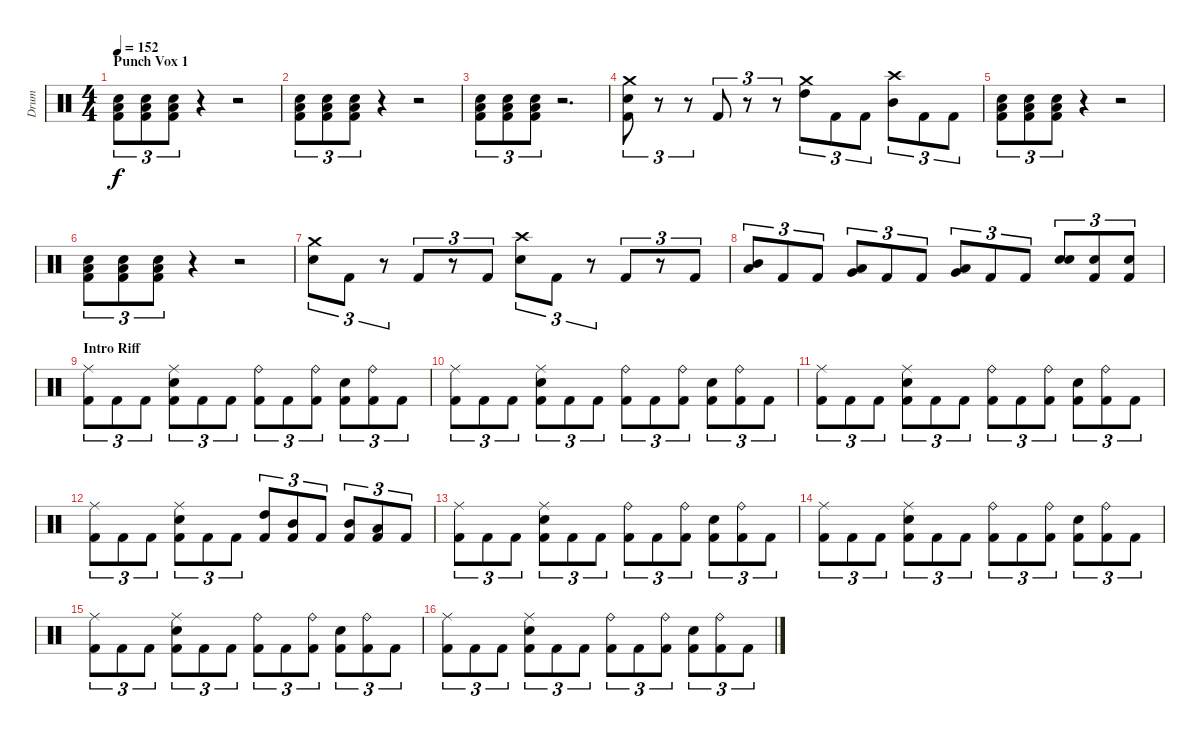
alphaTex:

\track ("Drum" "Drum") {instrument percussion}
\staff {score}
\articulation defaults
\ts (4 4)
\section ("" "Punch Vox 1")
\tempo 152
\clef neutral
\ks c
("Electric Snare (hit)" "Kick (hit) 2" "Low Floor Tom (hit)").8{tu (3 2) dy f} ("Electric Snare (hit)" "Low Floor Tom (hit)" "Kick (hit) 2").8{tu (3 2)} ("Kick (hit) 2" "Low Floor Tom (hit)" "Electric Snare (hit)").8{tu (3 2)} r.4 r.2 |
("Kick (hit) 2" "Low Floor Tom (hit)" "Electric Snare (hit)").8{tu (3 2)} ("Electric Snare (hit)" "Kick (hit) 2" "Low Floor Tom (hit)").8{tu (3 2)} ("Low Floor Tom (hit)" "Kick (hit) 2" "Electric Snare (hit)").8{tu (3 2)} r.4 r.2 |
("Electric Snare (hit)" "Low Floor Tom (hit)" "Kick (hit) 2").8{tu (3 2)} ("Electric Snare (hit)" "Low Floor Tom (hit)" "Kick (hit) 2").8{tu (3 2)} ("Kick (hit) 2" "Low Floor Tom (hit)" "Electric Snare (hit)").8{tu (3 2)} r.2{d} |
("Kick (hit) 2" "Electric Snare (hit)" "Crash medium (hit)").8{tu (3 2)} r.8{tu (3 2)} r.8{tu (3 2)} "Kick (hit) 2".8{tu (3 2)} r.8{tu (3 2)} r.8{tu (3 2)} ("Crash medium (hit)" "High Tom (hit)").8{tu (3 2)} "Kick (hit) 2".8{tu (3 2)} "Kick (hit) 2".8{tu (3 2)} ("Crash high (hit)" "Mid Tom (hit)").8{tu (3 2)} "Kick (hit) 2".8{tu (3 2)} "Kick (hit) 2".8{tu (3 2)} |
("Electric Snare (hit)" "Kick (hit) 2" "Low Floor Tom (hit)").8{tu (3 2)} ("Electric Snare (hit)" "Kick (hit) 2" "Low Floor Tom (hit)").8{tu (3 2)} ("Electric Snare (hit)" "Kick (hit) 2" "Low Floor Tom (hit)").8{tu (3 2)} r.4 r.2 |
("Electric Snare (hit)" "Kick (hit) 2" "Low Floor Tom (hit)").8{tu (3 2)} ("Electric Snare (hit)" "Kick (hit) 2" "Low Floor Tom (hit)").8{tu (3 2)} ("Electric Snare (hit)" "Kick (hit) 2" "Low Floor Tom (hit)").8{tu (3 2)} r.4 r.2 |
("Electric Snare (hit)" "Crash medium (hit)").8{tu (3 2)} "Kick (hit) 2".8{tu (3 2)} r.8{tu (3 2)} "Kick (hit) 2".8{tu (3 2)} r.8{tu (3 2)} "Kick (hit) 2".8{tu (3 2)} ("Electric Snare (hit)" "Crash high (hit)").8{tu (3 2)} "Kick (hit) 2".8{tu (3 2)} r.8{tu (3 2)} "Kick (hit) 2".8{tu (3 2)} r.8{tu (3 2)} "Kick (hit) 2".8{tu (3 2)} |
("Low Tom (hit)" "Mid Tom (hit)").8{tu (3 2)} "Kick (hit) 2".8{tu (3 2)} "Kick (hit) 2".8{tu (3 2)} ("Very Low Tom (hit)" "Low Tom (hit)").8{tu (3 2)} "Kick (hit) 2".8{tu (3 2)} "Kick (hit) 2".8{tu (3 2)} ("Low Floor Tom (hit)" "Very Low Tom (hit)").8{tu (3 2)} "Kick (hit) 2".8{tu (3 2)} "Kick (hit) 2".8{tu (3 2)} ("Electric Snare (hit)" "Electric Snare (hit)").8{tu (3 2)} ("Electric Snare (hit)" "Kick (hit) 2").8{tu (3 2)} ("Kick (hit) 2" "Electric Snare (hit)").8{tu (3 2)} |
\section ("" "Intro Riff")
("Kick (hit) 2" "Ride (middle)").8{tu (3 2)} "Kick (hit) 2".8{tu (3 2)} "Kick (hit) 2".8{tu (3 2)} ("Ride (middle)" "Kick (hit) 2" "Electric Snare (hit)").8{tu (3 2)} "Kick (hit) 2".8{tu (3 2)} "Kick (hit) 2".8{tu (3 2)} ("Ride (bell)" "Kick (hit) 2").8{tu (3 2)} "Kick (hit) 2".8{tu (3 2)} ("Ride (bell)" "Kick (hit) 2").8{tu (3 2)} ("Electric Snare (hit)" "Kick (hit) 2").8{tu (3 2)} ("Ride (bell)" "Kick (hit) 2").8{tu (3 2)} "Kick (hit) 2".8{tu (3 2)} |
("Kick (hit) 2" "Ride (middle)").8{tu (3 2)} "Kick (hit) 2".8{tu (3 2)} "Kick (hit) 2".8{tu (3 2)} ("Electric Snare (hit)" "Ride (middle)" "Kick (hit) 2").8{tu (3 2)} "Kick (hit) 2".8{tu (3 2)} "Kick (hit) 2".8{tu (3 2)} ("Kick (hit) 2" "Ride (bell)").8{tu (3 2)} "Kick (hit) 2".8{tu (3 2)} ("Kick (hit) 2" "Ride (bell)").8{tu (3 2)} ("Electric Snare (hit)" "Kick (hit) 2").8{tu (3 2)} ("Kick (hit) 2" "Ride (bell)").8{tu (3 2)} "Kick (hit) 2".8{tu (3 2)} |
("Ride (middle)" "Kick (hit) 2").8{tu (3 2)} "Kick (hit) 2".8{tu (3 2)} "Kick (hit) 2".8{tu (3 2)} ("Electric Snare (hit)" "Ride (middle)" "Kick (hit) 2").8{tu (3 2)} "Kick (hit) 2".8{tu (3 2)} "Kick (hit) 2".8{tu (3 2)} ("Ride (bell)" "Kick (hit) 2").8{tu (3 2)} "Kick (hit) 2".8{tu (3 2)} ("Ride (bell)" "Kick (hit) 2").8{tu (3 2)} ("Electric Snare (hit)" "Kick (hit) 2").8{tu (3 2)} ("Ride (bell)" "Kick (hit) 2").8{tu (3 2)} "Kick (hit) 2".8{tu (3 2)} |
("Ride (middle)" "Kick (hit) 2").8{tu (3 2)} "Kick (hit) 2".8{tu (3 2)} "Kick (hit) 2".8{tu (3 2)} ("Electric Snare (hit)" "Kick (hit) 2" "Ride (middle)").8{tu (3 2)} "Kick (hit) 2".8{tu (3 2)} "Kick (hit) 2".8{tu (3 2)} ("Kick (hit) 2" "High Tom (hit)").8{tu (3 2)} ("Kick (hit) 2" "Mid Tom (hit)").8{tu (3 2)} "Kick (hit) 2".8{tu (3 2)} ("Mid Tom (hit)" "Kick (hit) 2").8{tu (3 2)} ("Low Tom (hit)" "Kick (hit) 2").8{tu (3 2)} "Kick (hit) 2".8{tu (3 2)} |
("Ride (middle)" "Kick (hit) 2").8{tu (3 2)} "Kick (hit) 2".8{tu (3 2)} "Kick (hit) 2".8{tu (3 2)} ("Ride (middle)" "Electric Snare (hit)" "Kick (hit) 2").8{tu (3 2)} "Kick (hit) 2".8{tu (3 2)} "Kick (hit) 2".8{tu (3 2)} ("Ride (bell)" "Kick (hit) 2").8{tu (3 2)} "Kick (hit) 2".8{tu (3 2)} ("Ride (bell)" "Kick (hit) 2").8{tu (3 2)} ("Electric Snare (hit)" "Kick (hit) 2").8{tu (3 2)} ("Ride (bell)" "Kick (hit) 2").8{tu (3 2)} "Kick (hit) 2".8{tu (3 2)} |
("Kick (hit) 2" "Ride (middle)").8{tu (3 2)} "Kick (hit) 2".8{tu (3 2)} "Kick (hit) 2".8{tu (3 2)} ("Electric Snare (hit)" "Kick (hit) 2" "Ride (middle)").8{tu (3 2)} "Kick (hit) 2".8{tu (3 2)} "Kick (hit) 2".8{tu (3 2)} ("Ride (bell)" "Kick (hit) 2").8{tu (3 2)} "Kick (hit) 2".8{tu (3 2)} ("Ride (bell)" "Kick (hit) 2").8{tu (3 2)} ("Electric Snare (hit)" "Kick (hit) 2").8{tu (3 2)} ("Ride (bell)" "Kick (hit) 2").8{tu (3 2)} "Kick (hit) 2".8{tu (3 2)} |
("Ride (middle)" "Kick (hit) 2").8{tu (3 2)} "Kick (hit) 2".8{tu (3 2)} "Kick (hit) 2".8{tu (3 2)} ("Electric Snare (hit)" "Ride (middle)" "Kick (hit) 2").8{tu (3 2)} "Kick (hit) 2".8{tu (3 2)} "Kick (hit) 2".8{tu (3 2)} ("Ride (bell)" "Kick (hit) 2").8{tu (3 2)} "Kick (hit) 2".8{tu (3 2)} ("Ride (bell)" "Kick (hit) 2").8{tu (3 2)} ("Electric Snare (hit)" "Kick (hit) 2").8{tu (3 2)} ("Ride (bell)" "Kick (hit) 2").8{tu (3 2)} "Kick (hit) 2".8{tu (3 2)} |
("Ride (middle)" "Kick (hit) 2").8{tu (3 2)} "Kick (hit) 2".8{tu (3 2)} "Kick (hit) 2".8{tu (3 2)} ("Electric Snare (hit)" "Kick (hit) 2" "Ride (middle)").8{tu (3 2)} "Kick (hit) 2".8{tu (3 2)} "Kick (hit) 2".8{tu (3 2)} ("Ride (bell)" "Kick (hit) 2").8{tu (3 2)} "Kick (hit) 2".8{tu (3 2)} ("Ride (bell)" "Kick (hit) 2").8{tu (3 2)} ("Electric Snare (hit)" "Kick (hit) 2").8{tu (3 2)} ("Ride (bell)" "Kick (hit) 2").8{tu (3 2)} "Kick (hit) 2".8{tu (3 2)}
